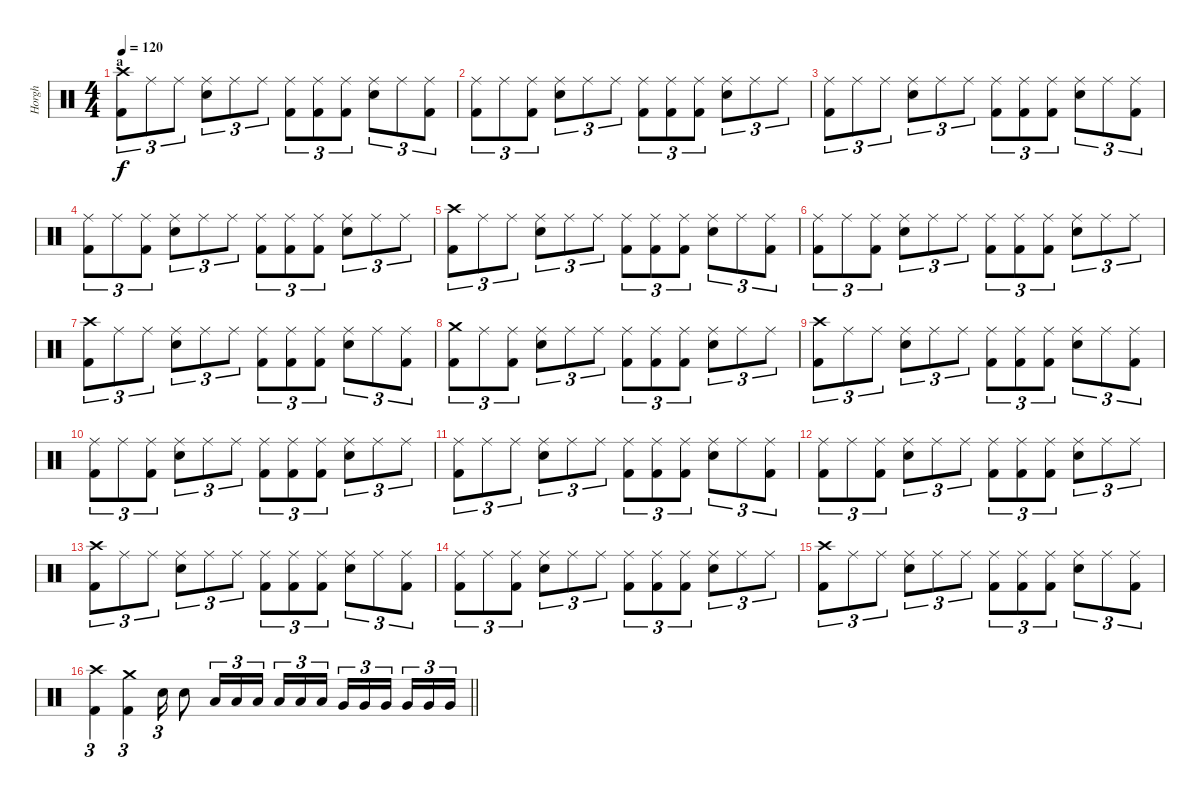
\track ("Horgh" "Horgh") {instrument percussion}
\staff {score}
\articulation defaults
\ts (4 4)
\section ("" "a")
\tempo 120
\clef neutral
\ks c
("Crash high (hit)" "Kick (hit) 2").8{tu (3 2) dy f} "Ride (middle)".8{tu (3 2)} "Ride (middle)".8{tu (3 2)} ("Ride (middle)" "Electric Snare (hit)").8{tu (3 2)} "Ride (middle)".8{tu (3 2)} "Ride (middle)".8{tu (3 2)} ("Ride (middle)" "Kick (hit) 2").8{tu (3 2)} ("Ride (middle)" "Kick (hit) 2").8{tu (3 2)} ("Ride (middle)" "Kick (hit) 2").8{tu (3 2)} ("Ride (middle)" "Electric Snare (hit)").8{tu (3 2)} "Ride (middle)".8{tu (3 2)} ("Ride (middle)" "Kick (hit) 2").8{tu (3 2)} |
("Ride (middle)" "Kick (hit) 2").8{tu (3 2)} "Ride (middle)".8{tu (3 2)} ("Ride (middle)" "Kick (hit) 2").8{tu (3 2)} ("Ride (middle)" "Electric Snare (hit)").8{tu (3 2)} "Ride (middle)".8{tu (3 2)} "Ride (middle)".8{tu (3 2)} ("Ride (middle)" "Kick (hit) 2").8{tu (3 2)} ("Ride (middle)" "Kick (hit) 2").8{tu (3 2)} ("Ride (middle)" "Kick (hit) 2").8{tu (3 2)} ("Ride (middle)" "Electric Snare (hit)").8{tu (3 2)} "Ride (middle)".8{tu (3 2)} "Ride (middle)".8{tu (3 2)} |
("Ride (middle)" "Kick (hit) 2").8{tu (3 2)} "Ride (middle)".8{tu (3 2)} "Ride (middle)".8{tu (3 2)} ("Ride (middle)" "Electric Snare (hit)").8{tu (3 2)} "Ride (middle)".8{tu (3 2)} "Ride (middle)".8{tu (3 2)} ("Ride (middle)" "Kick (hit) 2").8{tu (3 2)} ("Ride (middle)" "Kick (hit) 2").8{tu (3 2)} ("Ride (middle)" "Kick (hit) 2").8{tu (3 2)} ("Ride (middle)" "Electric Snare (hit)").8{tu (3 2)} "Ride (middle)".8{tu (3 2)} ("Ride (middle)" "Kick (hit) 2").8{tu (3 2)} |
("Ride (middle)" "Kick (hit) 2").8{tu (3 2)} "Ride (middle)".8{tu (3 2)} ("Ride (middle)" "Kick (hit) 2").8{tu (3 2)} ("Ride (middle)" "Electric Snare (hit)").8{tu (3 2)} "Ride (middle)".8{tu (3 2)} "Ride (middle)".8{tu (3 2)} ("Ride (middle)" "Kick (hit) 2").8{tu (3 2)} ("Ride (middle)" "Kick (hit) 2").8{tu (3 2)} ("Ride (middle)" "Kick (hit) 2").8{tu (3 2)} ("Ride (middle)" "Electric Snare (hit)").8{tu (3 2)} "Ride (middle)".8{tu (3 2)} "Ride (middle)".8{tu (3 2)} |
("Crash high (hit)" "Kick (hit) 2").8{tu (3 2)} "Ride (middle)".8{tu (3 2)} "Ride (middle)".8{tu (3 2)} ("Ride (middle)" "Electric Snare (hit)").8{tu (3 2)} "Ride (middle)".8{tu (3 2)} "Ride (middle)".8{tu (3 2)} ("Ride (middle)" "Kick (hit) 2").8{tu (3 2)} ("Ride (middle)" "Kick (hit) 2").8{tu (3 2)} ("Ride (middle)" "Kick (hit) 2").8{tu (3 2)} ("Ride (middle)" "Electric Snare (hit)").8{tu (3 2)} "Ride (middle)".8{tu (3 2)} ("Ride (middle)" "Kick (hit) 2").8{tu (3 2)} |
("Ride (middle)" "Kick (hit) 2").8{tu (3 2)} "Ride (middle)".8{tu (3 2)} ("Ride (middle)" "Kick (hit) 2").8{tu (3 2)} ("Ride (middle)" "Electric Snare (hit)").8{tu (3 2)} "Ride (middle)".8{tu (3 2)} "Ride (middle)".8{tu (3 2)} ("Ride (middle)" "Kick (hit) 2").8{tu (3 2)} ("Ride (middle)" "Kick (hit) 2").8{tu (3 2)} ("Ride (middle)" "Kick (hit) 2").8{tu (3 2)} ("Ride (middle)" "Electric Snare (hit)").8{tu (3 2)} "Ride (middle)".8{tu (3 2)} "Ride (middle)".8{tu (3 2)} |
("Crash high (hit)" "Kick (hit) 2").8{tu (3 2)} "Ride (middle)".8{tu (3 2)} "Ride (middle)".8{tu (3 2)} ("Ride (middle)" "Electric Snare (hit)").8{tu (3 2)} "Ride (middle)".8{tu (3 2)} "Ride (middle)".8{tu (3 2)} ("Ride (middle)" "Kick (hit) 2").8{tu (3 2)} ("Ride (middle)" "Kick (hit) 2").8{tu (3 2)} ("Ride (middle)" "Kick (hit) 2").8{tu (3 2)} ("Ride (middle)" "Electric Snare (hit)").8{tu (3 2)} "Ride (middle)".8{tu (3 2)} ("Ride (middle)" "Kick (hit) 2").8{tu (3 2)} |
("Crash medium (hit)" "Kick (hit) 2").8{tu (3 2)} "Ride (middle)".8{tu (3 2)} ("Ride (middle)" "Kick (hit) 2").8{tu (3 2)} ("Ride (middle)" "Electric Snare (hit)").8{tu (3 2)} "Ride (middle)".8{tu (3 2)} "Ride (middle)".8{tu (3 2)} ("Ride (middle)" "Kick (hit) 2").8{tu (3 2)} ("Ride (middle)" "Kick (hit) 2").8{tu (3 2)} ("Ride (middle)" "Kick (hit) 2").8{tu (3 2)} ("Ride (middle)" "Electric Snare (hit)").8{tu (3 2)} "Ride (middle)".8{tu (3 2)} "Ride (middle)".8{tu (3 2)} |
("Crash high (hit)" "Kick (hit) 2").8{tu (3 2)} "Ride (middle)".8{tu (3 2)} "Ride (middle)".8{tu (3 2)} ("Ride (middle)" "Electric Snare (hit)").8{tu (3 2)} "Ride (middle)".8{tu (3 2)} "Ride (middle)".8{tu (3 2)} ("Ride (middle)" "Kick (hit) 2").8{tu (3 2)} ("Ride (middle)" "Kick (hit) 2").8{tu (3 2)} ("Ride (middle)" "Kick (hit) 2").8{tu (3 2)} ("Ride (middle)" "Electric Snare (hit)").8{tu (3 2)} "Ride (middle)".8{tu (3 2)} ("Ride (middle)" "Kick (hit) 2").8{tu (3 2)} |
("Ride (middle)" "Kick (hit) 2").8{tu (3 2)} "Ride (middle)".8{tu (3 2)} ("Ride (middle)" "Kick (hit) 2").8{tu (3 2)} ("Ride (middle)" "Electric Snare (hit)").8{tu (3 2)} "Ride (middle)".8{tu (3 2)} "Ride (middle)".8{tu (3 2)} ("Ride (middle)" "Kick (hit) 2").8{tu (3 2)} ("Ride (middle)" "Kick (hit) 2").8{tu (3 2)} ("Ride (middle)" "Kick (hit) 2").8{tu (3 2)} ("Ride (middle)" "Electric Snare (hit)").8{tu (3 2)} "Ride (middle)".8{tu (3 2)} "Ride (middle)".8{tu (3 2)} |
("Ride (middle)" "Kick (hit) 2").8{tu (3 2)} "Ride (middle)".8{tu (3 2)} "Ride (middle)".8{tu (3 2)} ("Ride (middle)" "Electric Snare (hit)").8{tu (3 2)} "Ride (middle)".8{tu (3 2)} "Ride (middle)".8{tu (3 2)} ("Ride (middle)" "Kick (hit) 2").8{tu (3 2)} ("Ride (middle)" "Kick (hit) 2").8{tu (3 2)} ("Ride (middle)" "Kick (hit) 2").8{tu (3 2)} ("Ride (middle)" "Electric Snare (hit)").8{tu (3 2)} "Ride (middle)".8{tu (3 2)} ("Ride (middle)" "Kick (hit) 2").8{tu (3 2)} |
("Ride (middle)" "Kick (hit) 2").8{tu (3 2)} "Ride (middle)".8{tu (3 2)} ("Ride (middle)" "Kick (hit) 2").8{tu (3 2)} ("Ride (middle)" "Electric Snare (hit)").8{tu (3 2)} "Ride (middle)".8{tu (3 2)} "Ride (middle)".8{tu (3 2)} ("Ride (middle)" "Kick (hit) 2").8{tu (3 2)} ("Ride (middle)" "Kick (hit) 2").8{tu (3 2)} ("Ride (middle)" "Kick (hit) 2").8{tu (3 2)} ("Ride (middle)" "Electric Snare (hit)").8{tu (3 2)} "Ride (middle)".8{tu (3 2)} "Ride (middle)".8{tu (3 2)} |
("Crash high (hit)" "Kick (hit) 2").8{tu (3 2)} "Ride (middle)".8{tu (3 2)} "Ride (middle)".8{tu (3 2)} ("Ride (middle)" "Electric Snare (hit)").8{tu (3 2)} "Ride (middle)".8{tu (3 2)} "Ride (middle)".8{tu (3 2)} ("Ride (middle)" "Kick (hit) 2").8{tu (3 2)} ("Ride (middle)" "Kick (hit) 2").8{tu (3 2)} ("Ride (middle)" "Kick (hit) 2").8{tu (3 2)} ("Ride (middle)" "Electric Snare (hit)").8{tu (3 2)} "Ride (middle)".8{tu (3 2)} ("Ride (middle)" "Kick (hit) 2").8{tu (3 2)} |
("Ride (middle)" "Kick (hit) 2").8{tu (3 2)} "Ride (middle)".8{tu (3 2)} ("Ride (middle)" "Kick (hit) 2").8{tu (3 2)} ("Ride (middle)" "Electric Snare (hit)").8{tu (3 2)} "Ride (middle)".8{tu (3 2)} "Ride (middle)".8{tu (3 2)} ("Ride (middle)" "Kick (hit) 2").8{tu (3 2)} ("Ride (middle)" "Kick (hit) 2").8{tu (3 2)} ("Ride (middle)" "Kick (hit) 2").8{tu (3 2)} ("Ride (middle)" "Electric Snare (hit)").8{tu (3 2)} "Ride (middle)".8{tu (3 2)} "Ride (middle)".8{tu (3 2)} |
("Crash high (hit)" "Kick (hit) 2").8{tu (3 2)} "Ride (middle)".8{tu (3 2)} "Ride (middle)".8{tu (3 2)} ("Ride (middle)" "Electric Snare (hit)").8{tu (3 2)} "Ride (middle)".8{tu (3 2)} "Ride (middle)".8{tu (3 2)} ("Ride (middle)" "Kick (hit) 2").8{tu (3 2)} ("Ride (middle)" "Kick (hit) 2").8{tu (3 2)} ("Ride (middle)" "Kick (hit) 2").8{tu (3 2)} ("Ride (middle)" "Electric Snare (hit)").8{tu (3 2)} "Ride (middle)".8{tu (3 2)} ("Ride (middle)" "Kick (hit) 2").8{tu (3 2)} |
\barLineRight lightlight
("Crash high (hit)" "Kick (hit) 2").4{tu (3 2)} ("Crash medium (hit)" "Kick (hit) 2").4{tu (3 2)} "Electric Snare (hit)".16{tu (3 2)} "Electric Snare (hit)".8 "Low Tom (hit)".16{tu (3 2)} "Low Tom (hit)".16{tu (3 2)} "Low Tom (hit)".16{tu (3 2) beam splitsecondary} "Low Tom (hit)".16{tu (3 2)} "Low Tom (hit)".16{tu (3 2)} "Low Tom (hit)".16{tu (3 2)} "Very Low Tom (hit)".16{tu (3 2)} "Very Low Tom (hit)".16{tu (3 2)} "Very Low Tom (hit)".16{tu (3 2) beam splitsecondary} "Very Low Tom (hit)".16{tu (3 2)} "Very Low Tom (hit)".16{tu (3 2)} "Very Low Tom (hit)".16{tu (3 2)}
